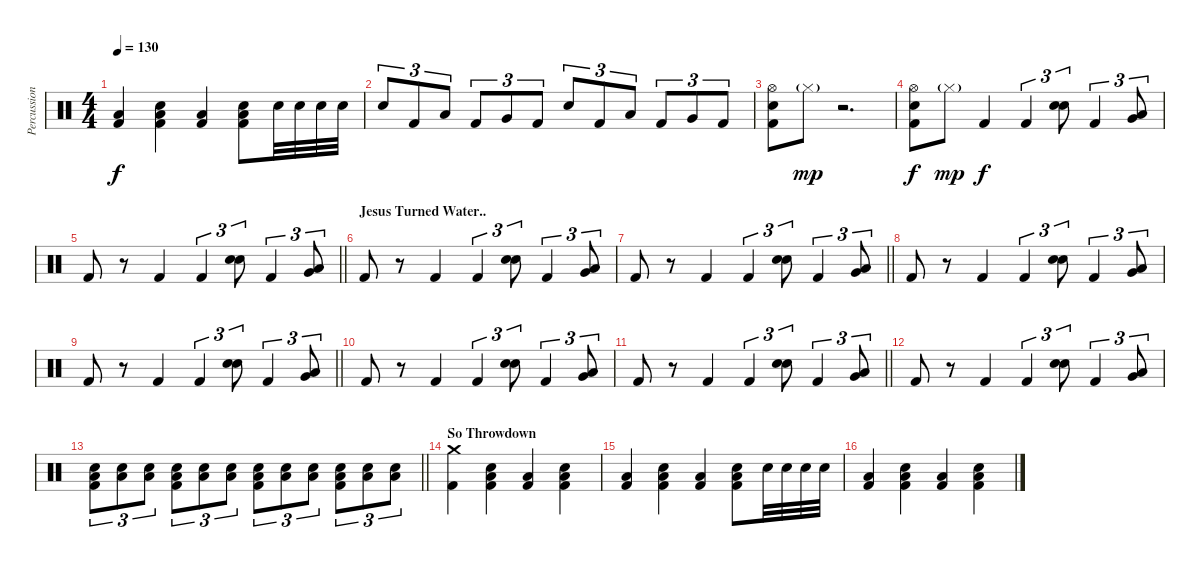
\track ("Percussion" "Percussion") {instrument percussion}
\staff {score}
\articulation defaults
\ts (4 4)
\tempo 130
\clef neutral
\ks c
("Low Floor Tom (hit)" "Kick (hit) 2").4{dy f} ("Low Floor Tom (hit)" "Electric Snare (hit)" "Kick (hit) 2").4 ("Low Floor Tom (hit)" "Kick (hit) 2").4 ("Low Floor Tom (hit)" "Electric Snare (hit)" "Kick (hit) 2").8 "Electric Snare (hit)".32 "Electric Snare (hit)".32 "Electric Snare (hit)".32 "Electric Snare (hit)".32 |
"Electric Snare (hit)".8{tu (3 2)} "Kick (hit) 2".8{tu (3 2)} "Low Tom (hit)".8{tu (3 2)} "Kick (hit) 2".8{tu (3 2)} "Very Low Tom (hit)".8{tu (3 2)} "Kick (hit) 2".8{tu (3 2)} "Electric Snare (hit)".8{tu (3 2)} "Kick (hit) 2".8{tu (3 2)} "Low Tom (hit)".8{tu (3 2)} "Kick (hit) 2".8{tu (3 2)} "Very Low Tom (hit)".8{tu (3 2)} "Kick (hit) 2".8{tu (3 2)} |
("Electric Snare (hit)" "Hi-Hat (open)" "Kick (hit) 2").8 "Hi-Hat (closed)"{g}.8{dy mp} r.2{d} |
("Electric Snare (hit)" "Hi-Hat (open)" "Kick (hit) 2").8{dy f} "Hi-Hat (closed)"{g}.8{dy mp} "Kick (hit) 2".4{dy f} "Kick (hit) 2".4{tu (3 2)} ("Snare (hit) 2" "Electric Snare (hit)").8{tu (3 2)} "Kick (hit) 2".4{tu (3 2)} ("Low Floor Tom (hit)" "Very Low Tom (hit)").8{tu (3 2)} |
\barLineRight lightlight "Kick (hit) 2".8
r.8 "Kick (hit) 2".4 "Kick (hit) 2".4{tu (3 2)} ("Electric Snare (hit)" "Snare (hit) 2").8{tu (3 2)} "Kick (hit) 2".4{tu (3 2)} ("Low Floor Tom (hit)" "Very Low Tom (hit)").8{tu (3 2)} |
\section ("" "Jesus Turned Water..")
"Kick (hit) 2".8 r.8 "Kick (hit) 2".4 "Kick (hit) 2".4{tu (3 2)} ("Electric Snare (hit)" "Snare (hit) 2").8{tu (3 2)} "Kick (hit) 2".4{tu (3 2)} ("Low Floor Tom (hit)" "Very Low Tom (hit)").8{tu (3 2)} |
\barLineRight lightlight "Kick (hit) 2".8
r.8 "Kick (hit) 2".4 "Kick (hit) 2".4{tu (3 2)} ("Electric Snare (hit)" "Snare (hit) 2").8{tu (3 2)} "Kick (hit) 2".4{tu (3 2)} ("Low Floor Tom (hit)" "Very Low Tom (hit)").8{tu (3 2)} |
"Kick (hit) 2".8 r.8 "Kick (hit) 2".4 "Kick (hit) 2".4{tu (3 2)} ("Electric Snare (hit)" "Snare (hit) 2").8{tu (3 2)} "Kick (hit) 2".4{tu (3 2)} ("Low Floor Tom (hit)" "Very Low Tom (hit)").8{tu (3 2)} |
\barLineRight lightlight "Kick (hit) 2".8
r.8 "Kick (hit) 2".4 "Kick (hit) 2".4{tu (3 2)} ("Electric Snare (hit)" "Snare (hit) 2").8{tu (3 2)} "Kick (hit) 2".4{tu (3 2)} ("Low Floor Tom (hit)" "Very Low Tom (hit)").8{tu (3 2)} |
"Kick (hit) 2".8 r.8 "Kick (hit) 2".4 "Kick (hit) 2".4{tu (3 2)} ("Electric Snare (hit)" "Snare (hit) 2").8{tu (3 2)} "Kick (hit) 2".4{tu (3 2)} ("Low Floor Tom (hit)" "Very Low Tom (hit)").8{tu (3 2)} |
\barLineRight lightlight "Kick (hit) 2".8
r.8 "Kick (hit) 2".4 "Kick (hit) 2".4{tu (3 2)} ("Electric Snare (hit)" "Snare (hit) 2").8{tu (3 2)} "Kick (hit) 2".4{tu (3 2)} ("Low Floor Tom (hit)" "Very Low Tom (hit)").8{tu (3 2)} |
"Kick (hit) 2".8 r.8 "Kick (hit) 2".4 "Kick (hit) 2".4{tu (3 2)} ("Electric Snare (hit)" "Snare (hit) 2").8{tu (3 2)} "Kick (hit) 2".4{tu (3 2)} ("Low Floor Tom (hit)" "Very Low Tom (hit)").8{tu (3 2)} |
\barLineRight lightlight
("Electric Snare (hit)" "Low Floor Tom (hit)" "Kick (hit) 2").8{tu (3 2)} ("Electric Snare (hit)" "Low Floor Tom (hit)").8{tu (3 2)} ("Electric Snare (hit)" "Low Floor Tom (hit)").8{tu (3 2)} ("Electric Snare (hit)" "Low Floor Tom (hit)" "Kick (hit) 2").8{tu (3 2)} ("Electric Snare (hit)" "Low Floor Tom (hit)").8{tu (3 2)} ("Electric Snare (hit)" "Low Floor Tom (hit)").8{tu (3 2)} ("Electric Snare (hit)" "Low Floor Tom (hit)" "Kick (hit) 2").8{tu (3 2)} ("Electric Snare (hit)" "Low Floor Tom (hit)").8{tu (3 2)} ("Electric Snare (hit)" "Low Floor Tom (hit)").8{tu (3 2)} ("Electric Snare (hit)" "Low Floor Tom (hit)" "Kick (hit) 2").8{tu (3 2)} ("Electric Snare (hit)" "Low Floor Tom (hit)").8{tu (3 2)} ("Electric Snare (hit)" "Low Floor Tom (hit)").8{tu (3 2)} |
\section ("" "So Throwdown")
("Crash medium (hit)" "Kick (hit) 2").4 ("Low Floor Tom (hit)" "Electric Snare (hit)" "Kick (hit) 2").4 ("Low Floor Tom (hit)" "Kick (hit) 2").4 ("Low Floor Tom (hit)" "Electric Snare (hit)" "Kick (hit) 2").4 |
("Low Floor Tom (hit)" "Kick (hit) 2").4 ("Low Floor Tom (hit)" "Electric Snare (hit)" "Kick (hit) 2").4 ("Low Floor Tom (hit)" "Kick (hit) 2").4 ("Low Floor Tom (hit)" "Electric Snare (hit)" "Kick (hit) 2").8 "Electric Snare (hit)".32 "Electric Snare (hit)".32 "Electric Snare (hit)".32 "Electric Snare (hit)".32 |
("Low Floor Tom (hit)" "Kick (hit) 2").4 ("Low Floor Tom (hit)" "Electric Snare (hit)" "Kick (hit) 2").4 ("Low Floor Tom (hit)" "Kick (hit) 2").4 ("Low Floor Tom (hit)" "Electric Snare (hit)" "Kick (hit) 2").4
